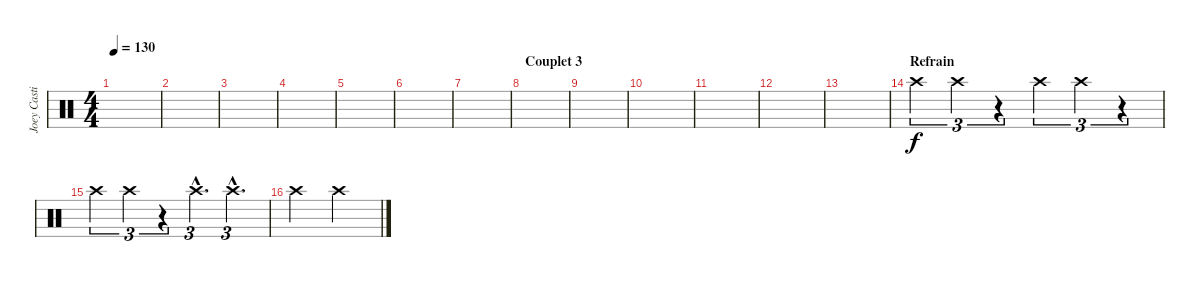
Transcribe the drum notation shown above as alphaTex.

\track ("Joey Castillo" "Joey Casti") {instrument percussion}
\staff {score}
\articulation defaults
\ts (4 4)
\tempo 130
\clef neutral
\ks c
|
|
|
|
|
|
|
\section ("" "Couplet 3")
|
|
|
|
|
|
\section ("" "Refrain")
"Crash high (hit)".4{tu (3 2)} "Crash high (hit)".4{tu (3 2)} r.4{tu (3 2)} "Crash high (hit)".4{tu (3 2)} "Crash high (hit)".4{tu (3 2)} r.4{tu (3 2)} |
"Crash high (hit)".4{tu (3 2)} "Crash high (hit)".4{tu (3 2)} r.4{tu (3 2)} "Crash high (hit)"{hac}.4{d tu (3 2)} "Crash high (hit)"{hac}.4{d tu (3 2)} |
"Crash high (hit)".2 "Crash high (hit)".2
